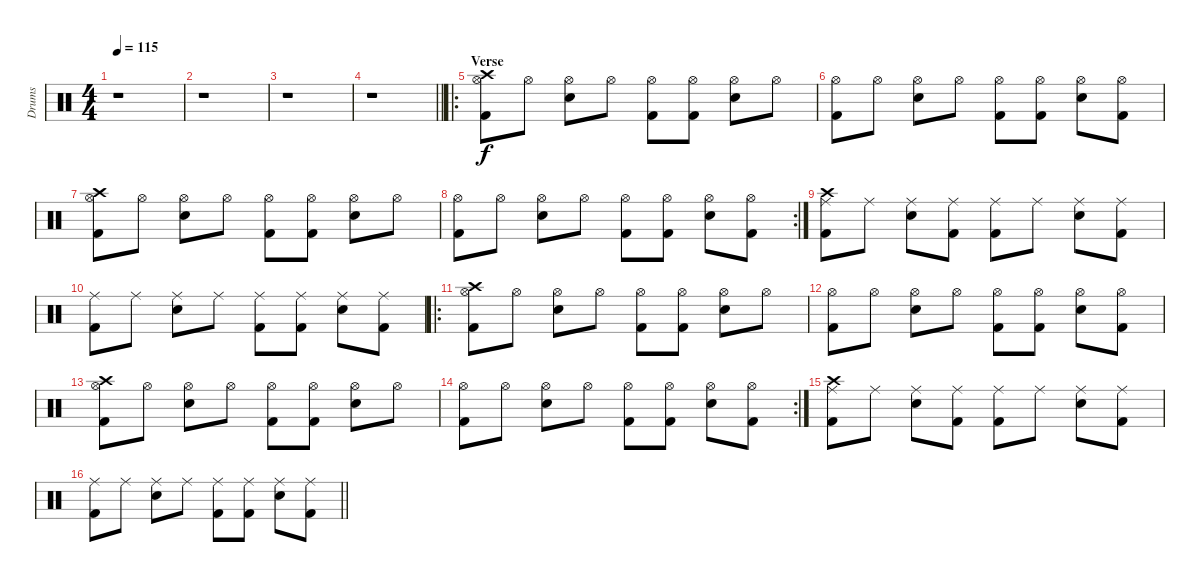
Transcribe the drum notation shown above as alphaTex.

\track ("Drums" "Drums") {instrument percussion}
\staff {score}
\articulation defaults
\ts (4 4)
\tempo 115
\clef neutral
\ks c
r.1{dy f} |
r.1 |
r.1 |
\barLineRight lightlight
r.1 |
\ro
\section ("" "Verse")
("Crash high (hit)" "Hi-Hat (open)" "Kick (hit) 2").8 "Hi-Hat (open)".8 ("Hi-Hat (open)" "Snare (hit) 2").8 "Hi-Hat (open)".8 ("Hi-Hat (open)" "Kick (hit) 2").8 ("Hi-Hat (open)" "Kick (hit) 2").8 ("Hi-Hat (open)" "Snare (hit) 2").8 "Hi-Hat (open)".8 |
("Hi-Hat (open)" "Kick (hit) 2").8 "Hi-Hat (open)".8 ("Hi-Hat (open)" "Snare (hit) 2").8 "Hi-Hat (open)".8 ("Hi-Hat (open)" "Kick (hit) 2").8 ("Hi-Hat (open)" "Kick (hit) 2").8 ("Hi-Hat (open)" "Snare (hit) 2").8 ("Hi-Hat (open)" "Kick (hit) 2").8 |
("Crash high (hit)" "Hi-Hat (open)" "Kick (hit) 2").8 "Hi-Hat (open)".8 ("Hi-Hat (open)" "Snare (hit) 2").8 "Hi-Hat (open)".8 ("Hi-Hat (open)" "Kick (hit) 2").8 ("Hi-Hat (open)" "Kick (hit) 2").8 ("Hi-Hat (open)" "Snare (hit) 2").8 "Hi-Hat (open)".8 |
\rc 2
("Hi-Hat (open)" "Kick (hit) 2").8 "Hi-Hat (open)".8 ("Hi-Hat (open)" "Snare (hit) 2").8 "Hi-Hat (open)".8 ("Hi-Hat (open)" "Kick (hit) 2").8 ("Hi-Hat (open)" "Kick (hit) 2").8 ("Hi-Hat (open)" "Snare (hit) 2").8 ("Hi-Hat (open)" "Kick (hit) 2").8 |
("Crash high (hit)" "Ride (middle)" "Kick (hit) 2").8 "Ride (middle)".8 ("Ride (middle)" "Snare (hit) 2").8 ("Ride (middle)" "Kick (hit) 2").8 ("Ride (middle)" "Kick (hit) 2").8 "Ride (middle)".8 ("Ride (middle)" "Snare (hit) 2").8 ("Ride (middle)" "Kick (hit) 2").8 |
("Ride (middle)" "Kick (hit) 2").8 "Ride (middle)".8 ("Ride (middle)" "Snare (hit) 2").8 "Ride (middle)".8 ("Ride (middle)" "Kick (hit) 2").8 ("Ride (middle)" "Kick (hit) 2").8 ("Ride (middle)" "Snare (hit) 2").8 ("Ride (middle)" "Kick (hit) 2").8 |
\ro
("Crash high (hit)" "Hi-Hat (open)" "Kick (hit) 2").8 "Hi-Hat (open)".8 ("Hi-Hat (open)" "Snare (hit) 2").8 "Hi-Hat (open)".8 ("Hi-Hat (open)" "Kick (hit) 2").8 ("Hi-Hat (open)" "Kick (hit) 2").8 ("Hi-Hat (open)" "Snare (hit) 2").8 "Hi-Hat (open)".8 |
("Hi-Hat (open)" "Kick (hit) 2").8 "Hi-Hat (open)".8 ("Hi-Hat (open)" "Snare (hit) 2").8 "Hi-Hat (open)".8 ("Hi-Hat (open)" "Kick (hit) 2").8 ("Hi-Hat (open)" "Kick (hit) 2").8 ("Hi-Hat (open)" "Snare (hit) 2").8 ("Hi-Hat (open)" "Kick (hit) 2").8 |
("Crash high (hit)" "Hi-Hat (open)" "Kick (hit) 2").8 "Hi-Hat (open)".8 ("Hi-Hat (open)" "Snare (hit) 2").8 "Hi-Hat (open)".8 ("Hi-Hat (open)" "Kick (hit) 2").8 ("Hi-Hat (open)" "Kick (hit) 2").8 ("Hi-Hat (open)" "Snare (hit) 2").8 "Hi-Hat (open)".8 |
\rc 2
("Hi-Hat (open)" "Kick (hit) 2").8 "Hi-Hat (open)".8 ("Hi-Hat (open)" "Snare (hit) 2").8 "Hi-Hat (open)".8 ("Hi-Hat (open)" "Kick (hit) 2").8 ("Hi-Hat (open)" "Kick (hit) 2").8 ("Hi-Hat (open)" "Snare (hit) 2").8 ("Hi-Hat (open)" "Kick (hit) 2").8 |
("Crash high (hit)" "Ride (middle)" "Kick (hit) 2").8 "Ride (middle)".8 ("Ride (middle)" "Snare (hit) 2").8 ("Ride (middle)" "Kick (hit) 2").8 ("Ride (middle)" "Kick (hit) 2").8 "Ride (middle)".8 ("Ride (middle)" "Snare (hit) 2").8 ("Ride (middle)" "Kick (hit) 2").8 |
\barLineRight lightlight
("Ride (middle)" "Kick (hit) 2").8 "Ride (middle)".8 ("Ride (middle)" "Snare (hit) 2").8 "Ride (middle)".8 ("Ride (middle)" "Kick (hit) 2").8 ("Ride (middle)" "Kick (hit) 2").8 ("Ride (middle)" "Snare (hit) 2").8 ("Ride (middle)" "Kick (hit) 2").8
